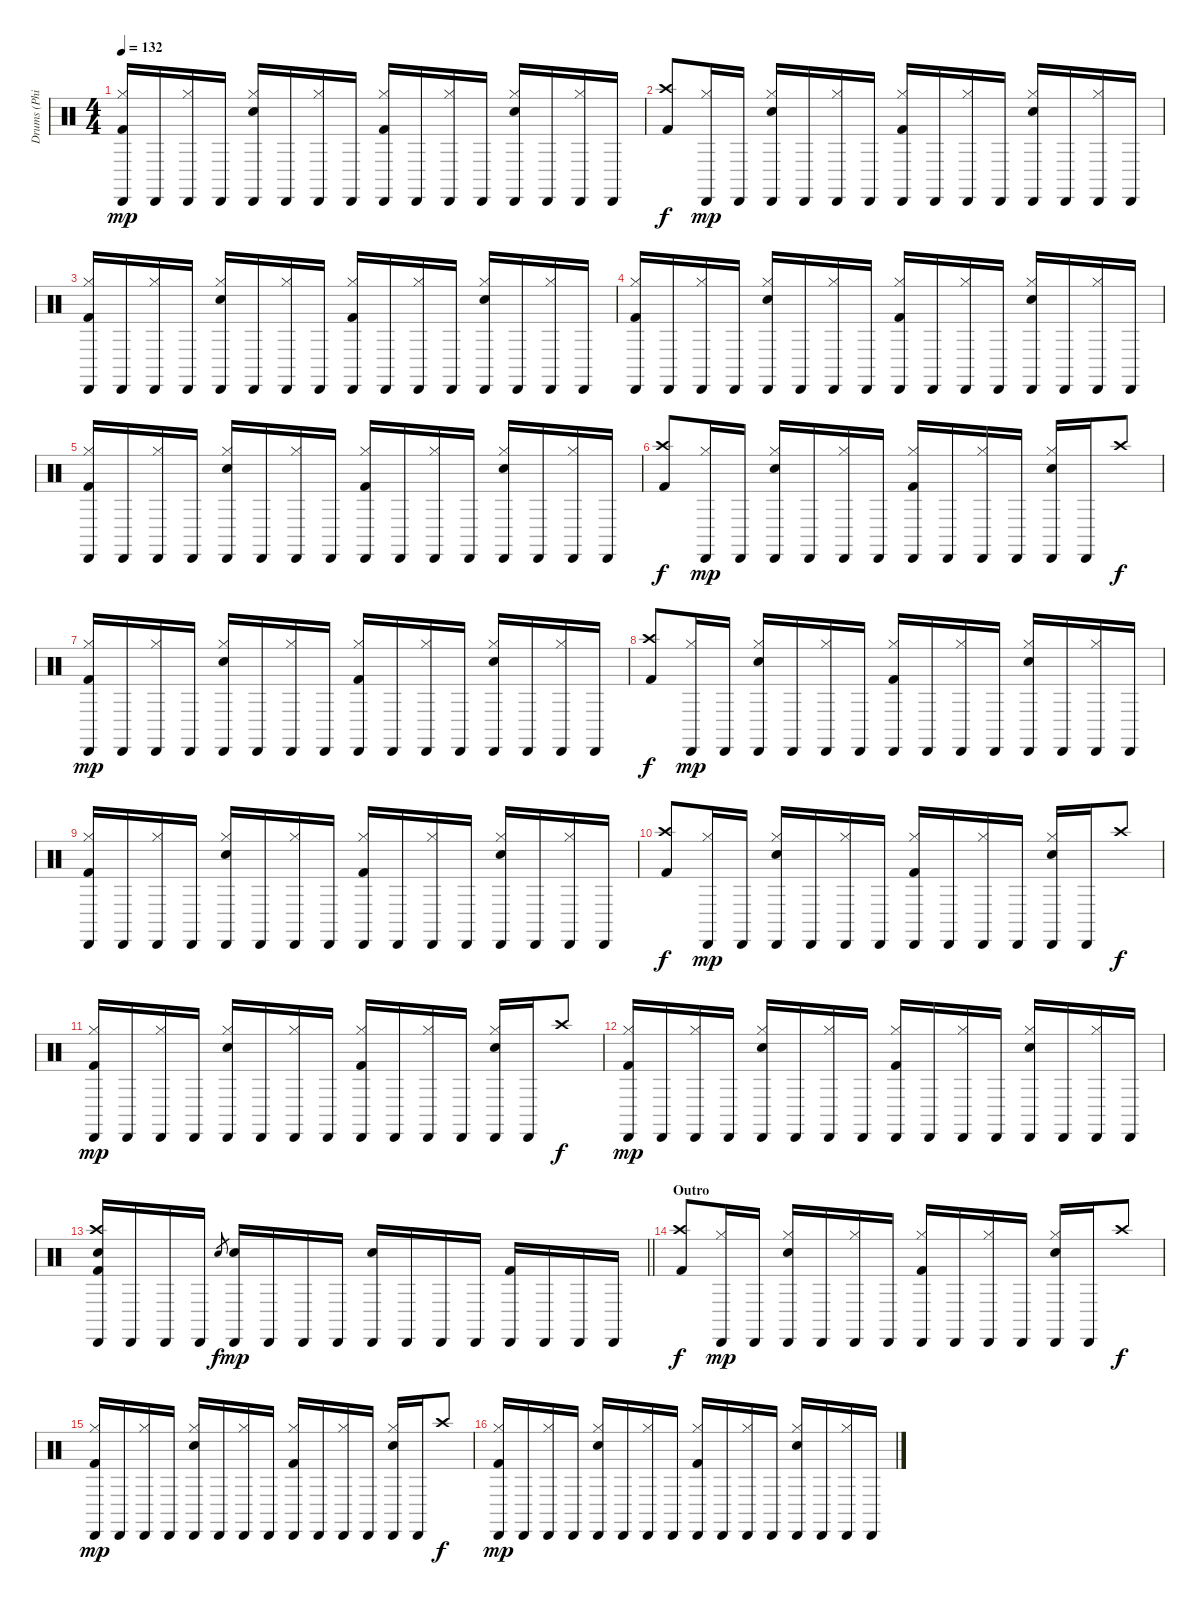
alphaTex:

\track ("Drums (Phil Rudd)" "Drums (Phi") {instrument percussion}
\staff {score}
\articulation defaults
\ts (4 4)
\tempo 132
\clef neutral
\ks c
("Hi-Hat (closed)" "Cabasa (hit)" "Kick (hit) 2").16{dy mp} "Cabasa (hit)".16 ("Hi-Hat (closed)" "Cabasa (hit)").16 "Cabasa (hit)".16 ("Hi-Hat (closed)" "Cabasa (hit)" "Snare (hit) 2").16 "Cabasa (hit)".16 ("Hi-Hat (closed)" "Cabasa (hit)").16 "Cabasa (hit)".16 ("Hi-Hat (closed)" "Cabasa (hit)" "Kick (hit) 2").16 "Cabasa (hit)".16 ("Hi-Hat (closed)" "Cabasa (hit)").16 "Cabasa (hit)".16 ("Hi-Hat (closed)" "Cabasa (hit)" "Snare (hit) 2").16 "Cabasa (hit)".16 ("Hi-Hat (closed)" "Cabasa (hit)").16 "Cabasa (hit)".16 |
("Crash high (hit)" "Kick (hit) 2").8{dy f} ("Hi-Hat (closed)" "Cabasa (hit)").16{dy mp} "Cabasa (hit)".16 ("Hi-Hat (closed)" "Cabasa (hit)" "Snare (hit) 2").16 "Cabasa (hit)".16 ("Hi-Hat (closed)" "Cabasa (hit)").16 "Cabasa (hit)".16 ("Hi-Hat (closed)" "Cabasa (hit)" "Kick (hit) 2").16 "Cabasa (hit)".16 ("Hi-Hat (closed)" "Cabasa (hit)").16 "Cabasa (hit)".16 ("Hi-Hat (closed)" "Cabasa (hit)" "Snare (hit) 2").16 "Cabasa (hit)".16 ("Hi-Hat (closed)" "Cabasa (hit)").16 "Cabasa (hit)".16 |
("Hi-Hat (closed)" "Cabasa (hit)" "Kick (hit) 2").16 "Cabasa (hit)".16 ("Hi-Hat (closed)" "Cabasa (hit)").16 "Cabasa (hit)".16 ("Hi-Hat (closed)" "Cabasa (hit)" "Snare (hit) 2").16 "Cabasa (hit)".16 ("Hi-Hat (closed)" "Cabasa (hit)").16 "Cabasa (hit)".16 ("Hi-Hat (closed)" "Cabasa (hit)" "Kick (hit) 2").16 "Cabasa (hit)".16 ("Hi-Hat (closed)" "Cabasa (hit)").16 "Cabasa (hit)".16 ("Hi-Hat (closed)" "Cabasa (hit)" "Snare (hit) 2").16 "Cabasa (hit)".16 ("Hi-Hat (closed)" "Cabasa (hit)").16 "Cabasa (hit)".16 |
("Hi-Hat (closed)" "Cabasa (hit)" "Kick (hit) 2").16 "Cabasa (hit)".16 ("Hi-Hat (closed)" "Cabasa (hit)").16 "Cabasa (hit)".16 ("Hi-Hat (closed)" "Cabasa (hit)" "Snare (hit) 2").16 "Cabasa (hit)".16 ("Hi-Hat (closed)" "Cabasa (hit)").16 "Cabasa (hit)".16 ("Hi-Hat (closed)" "Cabasa (hit)" "Kick (hit) 2").16 "Cabasa (hit)".16 ("Hi-Hat (closed)" "Cabasa (hit)").16 "Cabasa (hit)".16 ("Hi-Hat (closed)" "Cabasa (hit)" "Snare (hit) 2").16 "Cabasa (hit)".16 ("Hi-Hat (closed)" "Cabasa (hit)").16 "Cabasa (hit)".16 |
("Hi-Hat (closed)" "Cabasa (hit)" "Kick (hit) 2").16 "Cabasa (hit)".16 ("Hi-Hat (closed)" "Cabasa (hit)").16 "Cabasa (hit)".16 ("Hi-Hat (closed)" "Cabasa (hit)" "Snare (hit) 2").16 "Cabasa (hit)".16 ("Hi-Hat (closed)" "Cabasa (hit)").16 "Cabasa (hit)".16 ("Hi-Hat (closed)" "Cabasa (hit)" "Kick (hit) 2").16 "Cabasa (hit)".16 ("Hi-Hat (closed)" "Cabasa (hit)").16 "Cabasa (hit)".16 ("Hi-Hat (closed)" "Cabasa (hit)" "Snare (hit) 2").16 "Cabasa (hit)".16 ("Hi-Hat (closed)" "Cabasa (hit)").16 "Cabasa (hit)".16 |
("Crash high (hit)" "Kick (hit) 2").8{dy f} ("Hi-Hat (closed)" "Cabasa (hit)").16{dy mp} "Cabasa (hit)".16 ("Hi-Hat (closed)" "Cabasa (hit)" "Snare (hit) 2").16 "Cabasa (hit)".16 ("Hi-Hat (closed)" "Cabasa (hit)").16 "Cabasa (hit)".16 ("Hi-Hat (closed)" "Cabasa (hit)" "Kick (hit) 2").16 "Cabasa (hit)".16 ("Hi-Hat (closed)" "Cabasa (hit)").16 "Cabasa (hit)".16 ("Hi-Hat (closed)" "Cabasa (hit)" "Snare (hit) 2").16 "Cabasa (hit)".16 "Crash high (hit)".8{dy f} |
("Hi-Hat (closed)" "Cabasa (hit)" "Kick (hit) 2").16{dy mp} "Cabasa (hit)".16 ("Hi-Hat (closed)" "Cabasa (hit)").16 "Cabasa (hit)".16 ("Hi-Hat (closed)" "Cabasa (hit)" "Snare (hit) 2").16 "Cabasa (hit)".16 ("Hi-Hat (closed)" "Cabasa (hit)").16 "Cabasa (hit)".16 ("Hi-Hat (closed)" "Cabasa (hit)" "Kick (hit) 2").16 "Cabasa (hit)".16 ("Hi-Hat (closed)" "Cabasa (hit)").16 "Cabasa (hit)".16 ("Hi-Hat (closed)" "Cabasa (hit)" "Snare (hit) 2").16 "Cabasa (hit)".16 ("Hi-Hat (closed)" "Cabasa (hit)").16 "Cabasa (hit)".16 |
("Crash high (hit)" "Kick (hit) 2").8{dy f} ("Hi-Hat (closed)" "Cabasa (hit)").16{dy mp} "Cabasa (hit)".16 ("Hi-Hat (closed)" "Cabasa (hit)" "Snare (hit) 2").16 "Cabasa (hit)".16 ("Hi-Hat (closed)" "Cabasa (hit)").16 "Cabasa (hit)".16 ("Hi-Hat (closed)" "Cabasa (hit)" "Kick (hit) 2").16 "Cabasa (hit)".16 ("Hi-Hat (closed)" "Cabasa (hit)").16 "Cabasa (hit)".16 ("Hi-Hat (closed)" "Cabasa (hit)" "Snare (hit) 2").16 "Cabasa (hit)".16 ("Hi-Hat (closed)" "Cabasa (hit)").16 "Cabasa (hit)".16 |
("Hi-Hat (closed)" "Cabasa (hit)" "Kick (hit) 2").16 "Cabasa (hit)".16 ("Hi-Hat (closed)" "Cabasa (hit)").16 "Cabasa (hit)".16 ("Hi-Hat (closed)" "Cabasa (hit)" "Snare (hit) 2").16 "Cabasa (hit)".16 ("Hi-Hat (closed)" "Cabasa (hit)").16 "Cabasa (hit)".16 ("Hi-Hat (closed)" "Cabasa (hit)" "Kick (hit) 2").16 "Cabasa (hit)".16 ("Hi-Hat (closed)" "Cabasa (hit)").16 "Cabasa (hit)".16 ("Hi-Hat (closed)" "Cabasa (hit)" "Snare (hit) 2").16 "Cabasa (hit)".16 ("Hi-Hat (closed)" "Cabasa (hit)").16 "Cabasa (hit)".16 |
("Crash high (hit)" "Kick (hit) 2").8{dy f} ("Hi-Hat (closed)" "Cabasa (hit)").16{dy mp} "Cabasa (hit)".16 ("Hi-Hat (closed)" "Cabasa (hit)" "Snare (hit) 2").16 "Cabasa (hit)".16 ("Hi-Hat (closed)" "Cabasa (hit)").16 "Cabasa (hit)".16 ("Hi-Hat (closed)" "Cabasa (hit)" "Kick (hit) 2").16 "Cabasa (hit)".16 ("Hi-Hat (closed)" "Cabasa (hit)").16 "Cabasa (hit)".16 ("Hi-Hat (closed)" "Cabasa (hit)" "Snare (hit) 2").16 "Cabasa (hit)".16 "Crash high (hit)".8{dy f} |
("Hi-Hat (closed)" "Cabasa (hit)" "Kick (hit) 2").16{dy mp} "Cabasa (hit)".16 ("Hi-Hat (closed)" "Cabasa (hit)").16 "Cabasa (hit)".16 ("Hi-Hat (closed)" "Cabasa (hit)" "Snare (hit) 2").16 "Cabasa (hit)".16 ("Hi-Hat (closed)" "Cabasa (hit)").16 "Cabasa (hit)".16 ("Hi-Hat (closed)" "Cabasa (hit)" "Kick (hit) 2").16 "Cabasa (hit)".16 ("Hi-Hat (closed)" "Cabasa (hit)").16 "Cabasa (hit)".16 ("Hi-Hat (closed)" "Cabasa (hit)" "Snare (hit) 2").16 "Cabasa (hit)".16 "Crash high (hit)".8{dy f} |
("Hi-Hat (closed)" "Cabasa (hit)" "Kick (hit) 2").16{dy mp} "Cabasa (hit)".16 ("Hi-Hat (closed)" "Cabasa (hit)").16 "Cabasa (hit)".16 ("Hi-Hat (closed)" "Cabasa (hit)" "Snare (hit) 2").16 "Cabasa (hit)".16 ("Hi-Hat (closed)" "Cabasa (hit)").16 "Cabasa (hit)".16 ("Hi-Hat (closed)" "Cabasa (hit)" "Kick (hit) 2").16 "Cabasa (hit)".16 ("Hi-Hat (closed)" "Cabasa (hit)").16 "Cabasa (hit)".16 ("Hi-Hat (closed)" "Cabasa (hit)" "Snare (hit) 2").16 "Cabasa (hit)".16 ("Hi-Hat (closed)" "Cabasa (hit)").16 "Cabasa (hit)".16 |
\barLineRight lightlight
("Cabasa (hit)" "Crash high (hit)" "Snare (hit) 2" "Kick (hit) 2").16 "Cabasa (hit)".16 "Cabasa (hit)".16 "Cabasa (hit)".16 "Snare (hit) 2".8{gr dy f} ("Cabasa (hit)" "Snare (hit) 2").16{dy mp} "Cabasa (hit)".16 "Cabasa (hit)".16 "Cabasa (hit)".16 ("Cabasa (hit)" "Snare (hit) 2").16 "Cabasa (hit)".16 "Cabasa (hit)".16 "Cabasa (hit)".16 ("Cabasa (hit)" "Kick (hit) 2").16 "Cabasa (hit)".16 "Cabasa (hit)".16 "Cabasa (hit)".16 |
\section ("" "Outro")
("Crash high (hit)" "Kick (hit) 2").8{dy f} ("Hi-Hat (closed)" "Cabasa (hit)").16{dy mp} "Cabasa (hit)".16 ("Hi-Hat (closed)" "Cabasa (hit)" "Snare (hit) 2").16 "Cabasa (hit)".16 ("Hi-Hat (closed)" "Cabasa (hit)").16 "Cabasa (hit)".16 ("Hi-Hat (closed)" "Cabasa (hit)" "Kick (hit) 2").16 "Cabasa (hit)".16 ("Hi-Hat (closed)" "Cabasa (hit)").16 "Cabasa (hit)".16 ("Hi-Hat (closed)" "Cabasa (hit)" "Snare (hit) 2").16 "Cabasa (hit)".16 "Crash high (hit)".8{dy f} |
("Hi-Hat (closed)" "Cabasa (hit)" "Kick (hit) 2").16{dy mp} "Cabasa (hit)".16 ("Hi-Hat (closed)" "Cabasa (hit)").16 "Cabasa (hit)".16 ("Hi-Hat (closed)" "Cabasa (hit)" "Snare (hit) 2").16 "Cabasa (hit)".16 ("Hi-Hat (closed)" "Cabasa (hit)").16 "Cabasa (hit)".16 ("Hi-Hat (closed)" "Cabasa (hit)" "Kick (hit) 2").16 "Cabasa (hit)".16 ("Hi-Hat (closed)" "Cabasa (hit)").16 "Cabasa (hit)".16 ("Hi-Hat (closed)" "Cabasa (hit)" "Snare (hit) 2").16 "Cabasa (hit)".16 "Crash high (hit)".8{dy f} |
("Hi-Hat (closed)" "Cabasa (hit)" "Kick (hit) 2").16{dy mp} "Cabasa (hit)".16 ("Hi-Hat (closed)" "Cabasa (hit)").16 "Cabasa (hit)".16 ("Hi-Hat (closed)" "Cabasa (hit)" "Snare (hit) 2").16 "Cabasa (hit)".16 ("Hi-Hat (closed)" "Cabasa (hit)").16 "Cabasa (hit)".16 ("Hi-Hat (closed)" "Cabasa (hit)" "Kick (hit) 2").16 "Cabasa (hit)".16 ("Hi-Hat (closed)" "Cabasa (hit)").16 "Cabasa (hit)".16 ("Hi-Hat (closed)" "Cabasa (hit)" "Snare (hit) 2").16 "Cabasa (hit)".16 ("Hi-Hat (closed)" "Cabasa (hit)").16 "Cabasa (hit)".16
